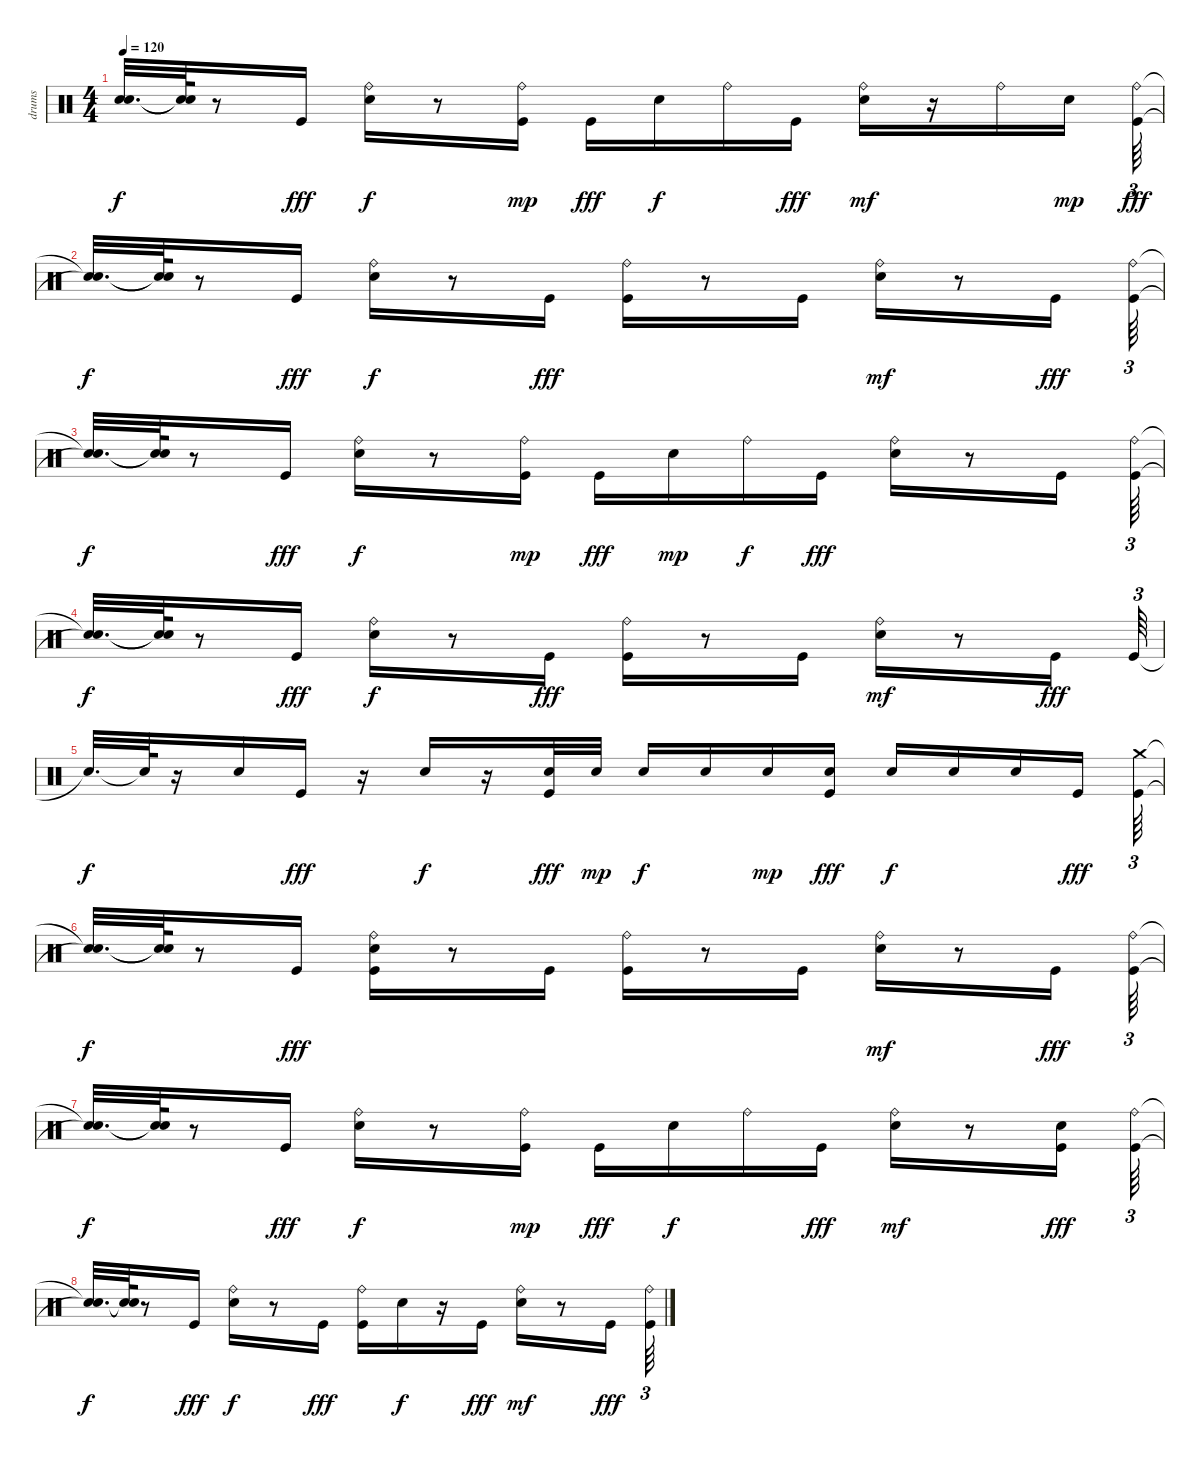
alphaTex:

\track ("drums" "drums") {instrument percussion}
\staff {score}
\articulation defaults
\ts (4 4)
\tempo 120
\clef neutral
\ks c
("Snare (hit)"{t} "Snare (hit)"{t}).32{d dy f} ("Snare (hit)"{t} "Snare (hit)"{t}).64 r.8 "Kick (hit)".16{dy fff} ("Snare (hit) 2" "Ride (bell)").16{dy f} r.8 ("Kick (hit)" "Ride (bell)").16{dy mp} "Kick (hit)".16{dy fff} "Snare (hit) 2".16{dy f} "Ride (bell)".16 "Kick (hit)".16{dy fff} ("Snare (hit) 2" "Ride (bell)").16{dy mf} r.16 "Ride (bell)".16 "Snare (hit) 2".16{dy mp} ("Kick (hit)" "Ride (bell)").64{tu (3 2) dy fff} |
("Snare (hit)"{t} "Snare (hit)"{t}).32{d dy f} ("Snare (hit)"{t} "Snare (hit)"{t}).64 r.8 "Kick (hit)".16{dy fff} ("Snare (hit) 2" "Ride (bell)").16{dy f} r.8 "Kick (hit)".16{dy fff} ("Kick (hit)" "Ride (bell)").16 r.8 "Kick (hit)".16 ("Snare (hit) 2" "Ride (bell)").16{dy mf} r.8 "Kick (hit)".16{dy fff} ("Kick (hit)" "Ride (bell)").64{tu (3 2)} |
("Snare (hit)"{t} "Snare (hit)"{t}).32{d dy f} ("Snare (hit)"{t} "Snare (hit)"{t}).64 r.8 "Kick (hit)".16{dy fff} ("Snare (hit) 2" "Ride (bell)").16{dy f} r.8 ("Kick (hit)" "Ride (bell)").16{dy mp} "Kick (hit)".16{dy fff} "Snare (hit) 2".16{dy mp} "Ride (bell)".16{dy f} "Kick (hit)".16{dy fff} ("Snare (hit) 2" "Ride (bell)").16 r.8 "Kick (hit)".16 ("Kick (hit)" "Ride (bell)").64{tu (3 2)} |
("Snare (hit)"{t} "Snare (hit)"{t}).32{d dy f} ("Snare (hit)"{t} "Snare (hit)"{t}).64 r.8 "Kick (hit)".16{dy fff} ("Snare (hit) 2" "Ride (bell)").16{dy f} r.8 "Kick (hit)".16{dy fff} ("Kick (hit)" "Ride (bell)").16 r.8 "Kick (hit)".16 ("Snare (hit) 2" "Ride (bell)").16{dy mf} r.8 "Kick (hit)".16{dy fff} "Kick (hit)".64{tu (3 2)} |
"Snare (hit)"{t}.32{d dy f} "Snare (hit)"{t}.64 r.16 "Snare (hit) 2".16 "Kick (hit)".16{dy fff} r.16 "Snare (hit) 2".16{dy f} r.16 ("Snare (hit) 2" "Kick (hit)").32{dy fff} "Snare (hit) 2".32{dy mp} "Snare (hit) 2".16{dy f} "Snare (hit) 2".16 "Snare (hit) 2".16{dy mp} ("Snare (hit) 2" "Kick (hit)").16{dy fff} "Snare (hit) 2".16{dy f} "Snare (hit) 2".16 "Snare (hit) 2".16 "Kick (hit)".16{dy fff} ("Kick (hit)" "Crash medium (hit)").64{tu (3 2)} |
("Snare (hit)"{t} "Snare (hit)"{t}).32{d dy f} ("Snare (hit)"{t} "Snare (hit)"{t}).64 r.8 "Kick (hit)".16{dy fff} ("Kick (hit)" "Snare (hit) 2" "Ride (bell)").16 r.8 "Kick (hit)".16 ("Kick (hit)" "Ride (bell)").16 r.8 "Kick (hit)".16 ("Snare (hit) 2" "Ride (bell)").16{dy mf} r.8 "Kick (hit)".16{dy fff} ("Kick (hit)" "Ride (bell)").64{tu (3 2)} |
("Snare (hit)"{t} "Snare (hit)"{t}).32{d dy f} ("Snare (hit)"{t} "Snare (hit)"{t}).64 r.8 "Kick (hit)".16{dy fff} ("Snare (hit) 2" "Ride (bell)").16{dy f} r.8 ("Kick (hit)" "Ride (bell)").16{dy mp} "Kick (hit)".16{dy fff} "Snare (hit) 2".16{dy f} "Ride (bell)".16 "Kick (hit)".16{dy fff} ("Snare (hit) 2" "Ride (bell)").16{dy mf} r.8 ("Kick (hit)" "Snare (hit) 2").16{dy fff} ("Kick (hit)" "Ride (bell)").64{tu (3 2)} |
("Snare (hit)"{t} "Snare (hit)"{t}).32{d dy f} ("Snare (hit)"{t} "Snare (hit)"{t}).64 r.8 "Kick (hit)".16{dy fff} ("Snare (hit) 2" "Ride (bell)").16{dy f} r.8 "Kick (hit)".16{dy fff} ("Kick (hit)" "Ride (bell)").16 "Snare (hit) 2".16{dy f} r.16 "Kick (hit)".16{dy fff} ("Snare (hit) 2" "Ride (bell)").16{dy mf} r.8 "Kick (hit)".16{dy fff} ("Kick (hit)" "Ride (bell)").64{tu (3 2)}
